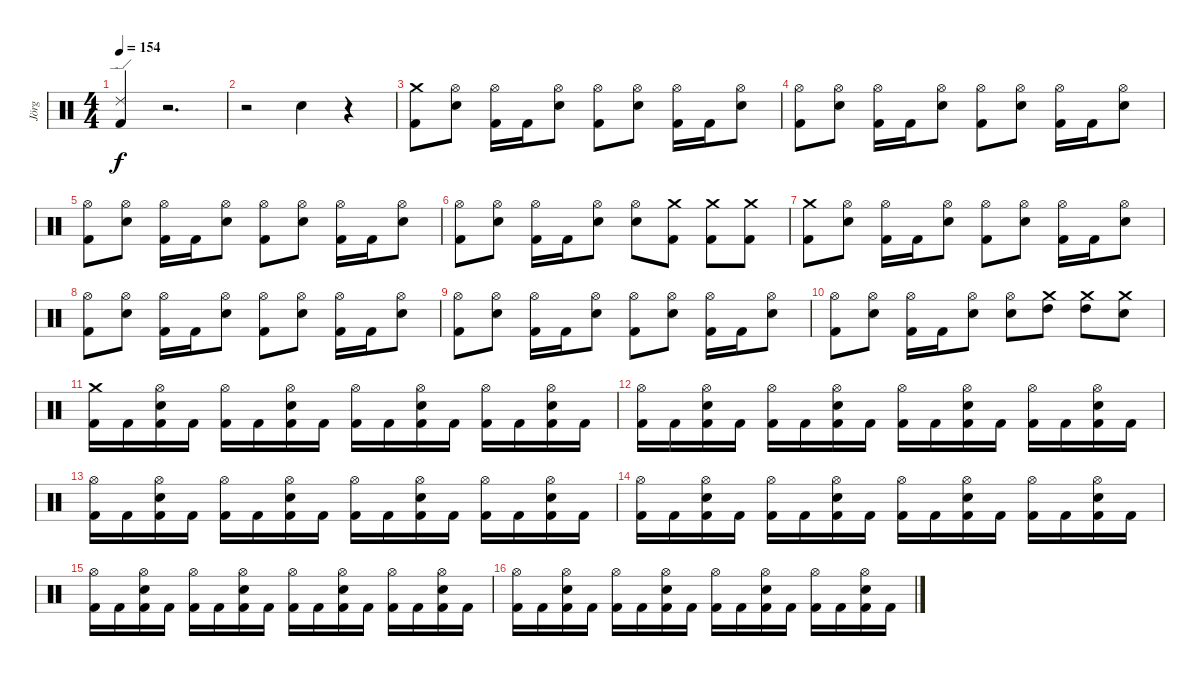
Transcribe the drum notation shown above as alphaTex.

\track ("Jörg" "Jörg") {instrument percussion}
\staff {score}
\articulation defaults
\ts (4 4)
\tempo 154
\clef neutral
\ks c
("Kick (hit) 2" "Ride (edge) 2").4{dy f} r.2{d} |
r.2 "Snare (hit) 2".4 r.4 |
("Kick (hit) 2" "Crash medium (hit)").8 ("Snare (hit) 2" "Hi-Hat (open)").8 ("Kick (hit) 2" "Hi-Hat (open)").16 "Kick (hit) 2".16 ("Snare (hit) 2" "Hi-Hat (open)").8 ("Kick (hit) 2" "Hi-Hat (open)").8 ("Snare (hit) 2" "Hi-Hat (open)").8 ("Kick (hit) 2" "Hi-Hat (open)").16 "Kick (hit) 2".16 ("Snare (hit) 2" "Hi-Hat (open)").8 |
("Hi-Hat (open)" "Kick (hit) 2").8 ("Snare (hit) 2" "Hi-Hat (open)").8 ("Kick (hit) 2" "Hi-Hat (open)").16 "Kick (hit) 2".16 ("Snare (hit) 2" "Hi-Hat (open)").8 ("Kick (hit) 2" "Hi-Hat (open)").8 ("Snare (hit) 2" "Hi-Hat (open)").8 ("Kick (hit) 2" "Hi-Hat (open)").16 "Kick (hit) 2".16 ("Snare (hit) 2" "Hi-Hat (open)").8 |
("Hi-Hat (open)" "Kick (hit) 2").8 ("Snare (hit) 2" "Hi-Hat (open)").8 ("Kick (hit) 2" "Hi-Hat (open)").16 "Kick (hit) 2".16 ("Snare (hit) 2" "Hi-Hat (open)").8 ("Kick (hit) 2" "Hi-Hat (open)").8 ("Snare (hit) 2" "Hi-Hat (open)").8 ("Kick (hit) 2" "Hi-Hat (open)").16 "Kick (hit) 2".16 ("Snare (hit) 2" "Hi-Hat (open)").8 |
("Hi-Hat (open)" "Kick (hit) 2").8 ("Snare (hit) 2" "Hi-Hat (open)").8 ("Kick (hit) 2" "Hi-Hat (open)").16 "Kick (hit) 2".16 ("Snare (hit) 2" "Hi-Hat (open)").8 ("Snare (hit) 2" "Hi-Hat (open)").8 ("Kick (hit) 2" "Crash medium (hit)").8 ("Kick (hit) 2" "Crash medium (hit)").8 ("Kick (hit) 2" "Crash medium (hit)").8 |
("Kick (hit) 2" "Crash medium (hit)").8 ("Snare (hit) 2" "Hi-Hat (open)").8 ("Kick (hit) 2" "Hi-Hat (open)").16 "Kick (hit) 2".16 ("Snare (hit) 2" "Hi-Hat (open)").8 ("Kick (hit) 2" "Hi-Hat (open)").8 ("Snare (hit) 2" "Hi-Hat (open)").8 ("Kick (hit) 2" "Hi-Hat (open)").16 "Kick (hit) 2".16 ("Snare (hit) 2" "Hi-Hat (open)").8 |
("Hi-Hat (open)" "Kick (hit) 2").8 ("Snare (hit) 2" "Hi-Hat (open)").8 ("Kick (hit) 2" "Hi-Hat (open)").16 "Kick (hit) 2".16 ("Snare (hit) 2" "Hi-Hat (open)").8 ("Kick (hit) 2" "Hi-Hat (open)").8 ("Snare (hit) 2" "Hi-Hat (open)").8 ("Kick (hit) 2" "Hi-Hat (open)").16 "Kick (hit) 2".16 ("Snare (hit) 2" "Hi-Hat (open)").8 |
("Hi-Hat (open)" "Kick (hit) 2").8 ("Snare (hit) 2" "Hi-Hat (open)").8 ("Kick (hit) 2" "Hi-Hat (open)").16 "Kick (hit) 2".16 ("Snare (hit) 2" "Hi-Hat (open)").8 ("Kick (hit) 2" "Hi-Hat (open)").8 ("Snare (hit) 2" "Hi-Hat (open)").8 ("Kick (hit) 2" "Hi-Hat (open)").16 "Kick (hit) 2".16 ("Snare (hit) 2" "Hi-Hat (open)").8 |
("Hi-Hat (open)" "Kick (hit) 2").8 ("Snare (hit) 2" "Hi-Hat (open)").8 ("Kick (hit) 2" "Hi-Hat (open)").16 "Kick (hit) 2".16 ("Snare (hit) 2" "Hi-Hat (open)").8 ("Snare (hit) 2" "Hi-Hat (open)").8 ("High Tom (hit)" "Crash medium (hit)").8 ("High Tom (hit)" "Crash medium (hit)").8 ("Snare (hit) 2" "Crash medium (hit)").8 |
("Crash medium (hit)" "Kick (hit) 2").16 "Kick (hit) 2".16 ("Snare (hit) 2" "Hi-Hat (open)" "Kick (hit) 2").16 "Kick (hit) 2".16 ("Hi-Hat (open)" "Kick (hit) 2").16 "Kick (hit) 2".16 ("Snare (hit) 2" "Hi-Hat (open)" "Kick (hit) 2").16 "Kick (hit) 2".16 ("Hi-Hat (open)" "Kick (hit) 2").16 "Kick (hit) 2".16 ("Snare (hit) 2" "Hi-Hat (open)" "Kick (hit) 2").16 "Kick (hit) 2".16 ("Hi-Hat (open)" "Kick (hit) 2").16 "Kick (hit) 2".16 ("Snare (hit) 2" "Hi-Hat (open)" "Kick (hit) 2").16 "Kick (hit) 2".16 |
("Hi-Hat (open)" "Kick (hit) 2").16 "Kick (hit) 2".16 ("Snare (hit) 2" "Hi-Hat (open)" "Kick (hit) 2").16 "Kick (hit) 2".16 ("Hi-Hat (open)" "Kick (hit) 2").16 "Kick (hit) 2".16 ("Snare (hit) 2" "Hi-Hat (open)" "Kick (hit) 2").16 "Kick (hit) 2".16 ("Hi-Hat (open)" "Kick (hit) 2").16 "Kick (hit) 2".16 ("Snare (hit) 2" "Hi-Hat (open)" "Kick (hit) 2").16 "Kick (hit) 2".16 ("Hi-Hat (open)" "Kick (hit) 2").16 "Kick (hit) 2".16 ("Snare (hit) 2" "Hi-Hat (open)" "Kick (hit) 2").16 "Kick (hit) 2".16 |
("Hi-Hat (open)" "Kick (hit) 2").16 "Kick (hit) 2".16 ("Snare (hit) 2" "Hi-Hat (open)" "Kick (hit) 2").16 "Kick (hit) 2".16 ("Hi-Hat (open)" "Kick (hit) 2").16 "Kick (hit) 2".16 ("Snare (hit) 2" "Hi-Hat (open)" "Kick (hit) 2").16 "Kick (hit) 2".16 ("Hi-Hat (open)" "Kick (hit) 2").16 "Kick (hit) 2".16 ("Snare (hit) 2" "Hi-Hat (open)" "Kick (hit) 2").16 "Kick (hit) 2".16 ("Hi-Hat (open)" "Kick (hit) 2").16 "Kick (hit) 2".16 ("Snare (hit) 2" "Hi-Hat (open)" "Kick (hit) 2").16 "Kick (hit) 2".16 |
("Hi-Hat (open)" "Kick (hit) 2").16 "Kick (hit) 2".16 ("Snare (hit) 2" "Hi-Hat (open)" "Kick (hit) 2").16 "Kick (hit) 2".16 ("Hi-Hat (open)" "Kick (hit) 2").16 "Kick (hit) 2".16 ("Snare (hit) 2" "Hi-Hat (open)" "Kick (hit) 2").16 "Kick (hit) 2".16 ("Hi-Hat (open)" "Kick (hit) 2").16 "Kick (hit) 2".16 ("Snare (hit) 2" "Hi-Hat (open)" "Kick (hit) 2").16 "Kick (hit) 2".16 ("Hi-Hat (open)" "Kick (hit) 2").16 "Kick (hit) 2".16 ("Snare (hit) 2" "Hi-Hat (open)" "Kick (hit) 2").16 "Kick (hit) 2".16 |
("Hi-Hat (open)" "Kick (hit) 2").16 "Kick (hit) 2".16 ("Snare (hit) 2" "Hi-Hat (open)" "Kick (hit) 2").16 "Kick (hit) 2".16 ("Hi-Hat (open)" "Kick (hit) 2").16 "Kick (hit) 2".16 ("Snare (hit) 2" "Hi-Hat (open)" "Kick (hit) 2").16 "Kick (hit) 2".16 ("Hi-Hat (open)" "Kick (hit) 2").16 "Kick (hit) 2".16 ("Snare (hit) 2" "Hi-Hat (open)" "Kick (hit) 2").16 "Kick (hit) 2".16 ("Hi-Hat (open)" "Kick (hit) 2").16 "Kick (hit) 2".16 ("Snare (hit) 2" "Hi-Hat (open)" "Kick (hit) 2").16 "Kick (hit) 2".16 |
("Hi-Hat (open)" "Kick (hit) 2").16 "Kick (hit) 2".16 ("Snare (hit) 2" "Hi-Hat (open)" "Kick (hit) 2").16 "Kick (hit) 2".16 ("Hi-Hat (open)" "Kick (hit) 2").16 "Kick (hit) 2".16 ("Snare (hit) 2" "Hi-Hat (open)" "Kick (hit) 2").16 "Kick (hit) 2".16 ("Hi-Hat (open)" "Kick (hit) 2").16 "Kick (hit) 2".16 ("Snare (hit) 2" "Hi-Hat (open)" "Kick (hit) 2").16 "Kick (hit) 2".16 ("Hi-Hat (open)" "Kick (hit) 2").16 "Kick (hit) 2".16 ("Snare (hit) 2" "Hi-Hat (open)" "Kick (hit) 2").16 "Kick (hit) 2".16
